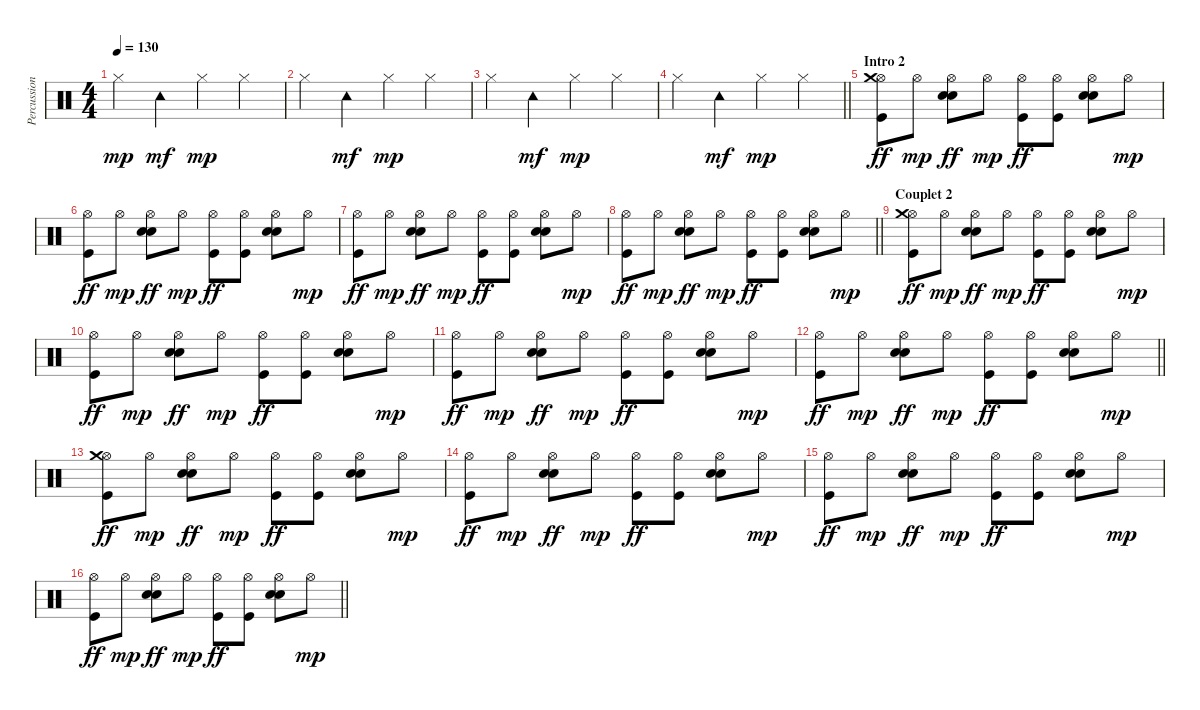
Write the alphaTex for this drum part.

\track ("Percussions" "Percussion") {instrument percussion}
\staff {score}
\articulation defaults
\ts (4 4)
\tempo 130
\clef neutral
\ks c "Hi-Hat (closed)".4{dy mp} "Tambourine (hit)".4{dy mf} "Hi-Hat (closed)".4{dy mp} "Hi-Hat (closed)".4
|
"Hi-Hat (closed)".4 "Tambourine (hit)".4{dy mf} "Hi-Hat (closed)".4{dy mp} "Hi-Hat (closed)".4 |
"Hi-Hat (closed)".4 "Tambourine (hit)".4{dy mf} "Hi-Hat (closed)".4{dy mp} "Hi-Hat (closed)".4 |
\barLineRight lightlight "Hi-Hat (closed)".4 "Tambourine (hit)".4{dy mf} "Hi-Hat (closed)".4{dy mp} "Hi-Hat (closed)".4
|
\section ("" "Intro 2")
("Hi-Hat (open)" "Crash medium (hit)" "Kick (hit)").8{dy ff} "Hi-Hat (open)".8{dy mp} ("Hi-Hat (open)" "Snare (hit) 2" "Electric Snare (hit)").8{dy ff} "Hi-Hat (open)".8{dy mp} ("Hi-Hat (open)" "Kick (hit)").8{dy ff} ("Hi-Hat (open)" "Kick (hit)").8 ("Hi-Hat (open)" "Snare (hit) 2" "Electric Snare (hit)").8 "Hi-Hat (open)".8{dy mp} |
("Hi-Hat (open)" "Kick (hit)").8{dy ff} "Hi-Hat (open)".8{dy mp} ("Hi-Hat (open)" "Snare (hit) 2" "Electric Snare (hit)").8{dy ff} "Hi-Hat (open)".8{dy mp} ("Hi-Hat (open)" "Kick (hit)").8{dy ff} ("Hi-Hat (open)" "Kick (hit)").8 ("Hi-Hat (open)" "Snare (hit) 2" "Electric Snare (hit)").8 "Hi-Hat (open)".8{dy mp} |
("Hi-Hat (open)" "Kick (hit)").8{dy ff} "Hi-Hat (open)".8{dy mp} ("Hi-Hat (open)" "Snare (hit) 2" "Electric Snare (hit)").8{dy ff} "Hi-Hat (open)".8{dy mp} ("Hi-Hat (open)" "Kick (hit)").8{dy ff} ("Hi-Hat (open)" "Kick (hit)").8 ("Hi-Hat (open)" "Snare (hit) 2" "Electric Snare (hit)").8 "Hi-Hat (open)".8{dy mp} |
\barLineRight lightlight
("Hi-Hat (open)" "Kick (hit)").8{dy ff} "Hi-Hat (open)".8{dy mp} ("Hi-Hat (open)" "Snare (hit) 2" "Electric Snare (hit)").8{dy ff} "Hi-Hat (open)".8{dy mp} ("Hi-Hat (open)" "Kick (hit)").8{dy ff} ("Hi-Hat (open)" "Kick (hit)").8 ("Hi-Hat (open)" "Snare (hit) 2" "Electric Snare (hit)").8 "Hi-Hat (open)".8{dy mp} |
\section ("" "Couplet 2")
("Hi-Hat (open)" "Crash medium (hit)" "Kick (hit)").8{dy ff} "Hi-Hat (open)".8{dy mp} ("Hi-Hat (open)" "Snare (hit) 2" "Electric Snare (hit)").8{dy ff} "Hi-Hat (open)".8{dy mp} ("Hi-Hat (open)" "Kick (hit)").8{dy ff} ("Hi-Hat (open)" "Kick (hit)").8 ("Hi-Hat (open)" "Snare (hit) 2" "Electric Snare (hit)").8 "Hi-Hat (open)".8{dy mp} |
("Hi-Hat (open)" "Kick (hit)").8{dy ff} "Hi-Hat (open)".8{dy mp} ("Hi-Hat (open)" "Snare (hit) 2" "Electric Snare (hit)").8{dy ff} "Hi-Hat (open)".8{dy mp} ("Hi-Hat (open)" "Kick (hit)").8{dy ff} ("Hi-Hat (open)" "Kick (hit)").8 ("Hi-Hat (open)" "Snare (hit) 2" "Electric Snare (hit)").8 "Hi-Hat (open)".8{dy mp} |
("Hi-Hat (open)" "Kick (hit)").8{dy ff} "Hi-Hat (open)".8{dy mp} ("Hi-Hat (open)" "Snare (hit) 2" "Electric Snare (hit)").8{dy ff} "Hi-Hat (open)".8{dy mp} ("Hi-Hat (open)" "Kick (hit)").8{dy ff} ("Hi-Hat (open)" "Kick (hit)").8 ("Hi-Hat (open)" "Snare (hit) 2" "Electric Snare (hit)").8 "Hi-Hat (open)".8{dy mp} |
\barLineRight lightlight
("Hi-Hat (open)" "Kick (hit)").8{dy ff} "Hi-Hat (open)".8{dy mp} ("Hi-Hat (open)" "Snare (hit) 2" "Electric Snare (hit)").8{dy ff} "Hi-Hat (open)".8{dy mp} ("Hi-Hat (open)" "Kick (hit)").8{dy ff} ("Hi-Hat (open)" "Kick (hit)").8 ("Hi-Hat (open)" "Snare (hit) 2" "Electric Snare (hit)").8 "Hi-Hat (open)".8{dy mp} |
("Hi-Hat (open)" "Crash medium (hit)" "Kick (hit)").8{dy ff} "Hi-Hat (open)".8{dy mp} ("Hi-Hat (open)" "Snare (hit) 2" "Electric Snare (hit)").8{dy ff} "Hi-Hat (open)".8{dy mp} ("Hi-Hat (open)" "Kick (hit)").8{dy ff} ("Hi-Hat (open)" "Kick (hit)").8 ("Hi-Hat (open)" "Snare (hit) 2" "Electric Snare (hit)").8 "Hi-Hat (open)".8{dy mp} |
("Hi-Hat (open)" "Kick (hit)").8{dy ff} "Hi-Hat (open)".8{dy mp} ("Hi-Hat (open)" "Snare (hit) 2" "Electric Snare (hit)").8{dy ff} "Hi-Hat (open)".8{dy mp} ("Hi-Hat (open)" "Kick (hit)").8{dy ff} ("Hi-Hat (open)" "Kick (hit)").8 ("Hi-Hat (open)" "Snare (hit) 2" "Electric Snare (hit)").8 "Hi-Hat (open)".8{dy mp} |
("Hi-Hat (open)" "Kick (hit)").8{dy ff} "Hi-Hat (open)".8{dy mp} ("Hi-Hat (open)" "Snare (hit) 2" "Electric Snare (hit)").8{dy ff} "Hi-Hat (open)".8{dy mp} ("Hi-Hat (open)" "Kick (hit)").8{dy ff} ("Hi-Hat (open)" "Kick (hit)").8 ("Hi-Hat (open)" "Snare (hit) 2" "Electric Snare (hit)").8 "Hi-Hat (open)".8{dy mp} |
\barLineRight lightlight
("Hi-Hat (open)" "Kick (hit)").8{dy ff} "Hi-Hat (open)".8{dy mp} ("Hi-Hat (open)" "Snare (hit) 2" "Electric Snare (hit)").8{dy ff} "Hi-Hat (open)".8{dy mp} ("Hi-Hat (open)" "Kick (hit)").8{dy ff} ("Hi-Hat (open)" "Kick (hit)").8 ("Hi-Hat (open)" "Snare (hit) 2" "Electric Snare (hit)").8 "Hi-Hat (open)".8{dy mp}
